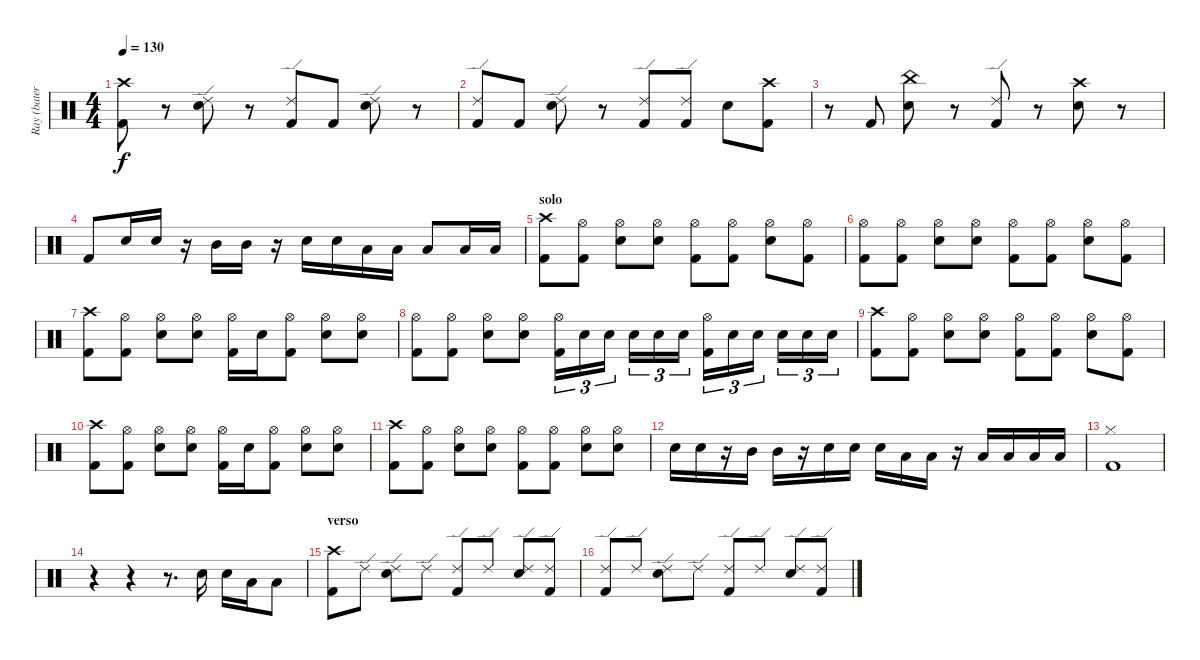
\track ("Ray (batería)" "Ray (bater") {instrument percussion}
\staff {score}
\articulation defaults
\ts (4 4)
\tempo 130
\clef neutral
\ks c
("Crash high (hit)" "Kick (hit) 2").8{dy f} r.8 ("Ride (edge) 2" "Snare (hit) 2").8 r.8 ("Ride (edge) 2" "Kick (hit) 2").8 "Kick (hit) 2".8 ("Ride (edge) 2" "Snare (hit) 2").8 r.8 |
("Ride (edge) 2" "Kick (hit) 2").8 "Kick (hit) 2".8 ("Ride (edge) 2" "Snare (hit) 2").8 r.8 ("Ride (edge) 2" "Kick (hit) 2").8 ("Ride (edge) 2" "Kick (hit) 2").8 "Snare (hit) 2".8 ("Crash high (hit)" "Kick (hit) 2").8 |
r.8 "Kick (hit) 2".8 ("China (hit)" "Snare (hit) 2").8 r.8 ("Ride (edge) 2" "Kick (hit) 2").8 r.8 ("Crash high (hit)" "Snare (hit) 2").8 r.8 |
"Kick (hit) 2".8 "Snare (hit) 2".16 "Snare (hit) 2".16 r.16 "Mid Tom (hit)".16 "Mid Tom (hit)".16 r.16 "Snare (hit) 2".16 "Snare (hit) 2".16 "Low Tom (hit)".16 "Low Tom (hit)".16 "Low Floor Tom (hit)".8 "Low Floor Tom (hit)".16 "Low Floor Tom (hit)".16 |
\section ("" "solo")
("Crash high (hit)" "Kick (hit) 2").8 ("Hi-Hat (open)" "Kick (hit) 2").8 ("Hi-Hat (open)" "Snare (hit) 2").8 ("Hi-Hat (open)" "Snare (hit) 2").8 ("Hi-Hat (open)" "Kick (hit) 2").8 ("Hi-Hat (open)" "Kick (hit) 2").8 ("Hi-Hat (open)" "Snare (hit) 2").8 ("Hi-Hat (open)" "Kick (hit) 2").8 |
("Hi-Hat (open)" "Kick (hit) 2").8 ("Hi-Hat (open)" "Kick (hit) 2").8 ("Hi-Hat (open)" "Snare (hit) 2").8 ("Hi-Hat (open)" "Snare (hit) 2").8 ("Hi-Hat (open)" "Kick (hit) 2").8 ("Hi-Hat (open)" "Kick (hit) 2").8 ("Hi-Hat (open)" "Snare (hit) 2").8 ("Hi-Hat (open)" "Kick (hit) 2").8 |
("Crash high (hit)" "Kick (hit) 2").8 ("Hi-Hat (open)" "Kick (hit) 2").8 ("Hi-Hat (open)" "Snare (hit) 2").8 ("Hi-Hat (open)" "Snare (hit) 2").8 ("Hi-Hat (open)" "Kick (hit) 2").16 "Snare (hit) 2".16 ("Hi-Hat (open)" "Kick (hit) 2").8 ("Hi-Hat (open)" "Snare (hit) 2").8 ("Hi-Hat (open)" "Snare (hit) 2").8 |
("Hi-Hat (open)" "Kick (hit) 2").8 ("Hi-Hat (open)" "Kick (hit) 2").8 ("Hi-Hat (open)" "Snare (hit) 2").8 ("Hi-Hat (open)" "Snare (hit) 2").8 ("Hi-Hat (open)" "Kick (hit) 2").16{tu (3 2)} "Snare (hit) 2".16{tu (3 2)} "Snare (hit) 2".16{tu (3 2)} "Snare (hit) 2".16{tu (3 2)} "Snare (hit) 2".16{tu (3 2)} "Snare (hit) 2".16{tu (3 2)} ("Hi-Hat (open)" "Kick (hit) 2").16{tu (3 2)} "Snare (hit) 2".16{tu (3 2)} "Snare (hit) 2".16{tu (3 2)} "Snare (hit) 2".16{tu (3 2)} "Snare (hit) 2".16{tu (3 2)} "Snare (hit) 2".16{tu (3 2)} |
("Crash high (hit)" "Kick (hit) 2").8 ("Hi-Hat (open)" "Kick (hit) 2").8 ("Hi-Hat (open)" "Snare (hit) 2").8 ("Hi-Hat (open)" "Snare (hit) 2").8 ("Hi-Hat (open)" "Kick (hit) 2").8 ("Hi-Hat (open)" "Kick (hit) 2").8 ("Hi-Hat (open)" "Snare (hit) 2").8 ("Hi-Hat (open)" "Kick (hit) 2").8 |
("Crash high (hit)" "Kick (hit) 2").8 ("Hi-Hat (open)" "Kick (hit) 2").8 ("Hi-Hat (open)" "Snare (hit) 2").8 ("Hi-Hat (open)" "Snare (hit) 2").8 ("Hi-Hat (open)" "Kick (hit) 2").16 "Snare (hit) 2".16 ("Hi-Hat (open)" "Kick (hit) 2").8 ("Hi-Hat (open)" "Snare (hit) 2").8 ("Hi-Hat (open)" "Snare (hit) 2").8 |
("Crash high (hit)" "Kick (hit) 2").8 ("Hi-Hat (open)" "Kick (hit) 2").8 ("Hi-Hat (open)" "Snare (hit) 2").8 ("Hi-Hat (open)" "Snare (hit) 2").8 ("Hi-Hat (open)" "Kick (hit) 2").8 ("Hi-Hat (open)" "Kick (hit) 2").8 ("Hi-Hat (open)" "Snare (hit) 2").8 ("Hi-Hat (open)" "Snare (hit) 2").8 |
"Snare (hit) 2".16 "Snare (hit) 2".16 r.16 "Mid Tom (hit)".16 "Mid Tom (hit)".16 r.16 "Snare (hit) 2".16 "Snare (hit) 2".16 "Snare (hit) 2".16 "Low Tom (hit)".16 "Low Tom (hit)".16 r.16 "Low Tom (hit)".16 "Low Tom (hit)".16 "Low Floor Tom (hit)".16 "Low Floor Tom (hit)".16 |
("Hi-Hat (closed)" "Kick (hit) 2").1 |
r.4 r.4 r.8{d} "Snare (hit) 2".16 "Snare (hit) 2".16 "Low Tom (hit)".16 "Low Tom (hit)".8 |
\section ("" "verso")
("Crash high (hit)" "Kick (hit) 2").8 "Ride (edge) 2".8 ("Ride (edge) 2" "Snare (hit) 2").8 "Ride (edge) 2".8 ("Ride (edge) 2" "Kick (hit) 2").8 "Ride (edge) 2".8 ("Ride (edge) 2" "Snare (hit) 2").8 ("Ride (edge) 2" "Kick (hit) 2").8 |
("Ride (edge) 2" "Kick (hit) 2").8 "Ride (edge) 2".8 ("Ride (edge) 2" "Snare (hit) 2").8 "Ride (edge) 2".8 ("Ride (edge) 2" "Kick (hit) 2").8 "Ride (edge) 2".8 ("Ride (edge) 2" "Snare (hit) 2").8 ("Ride (edge) 2" "Kick (hit) 2").8
